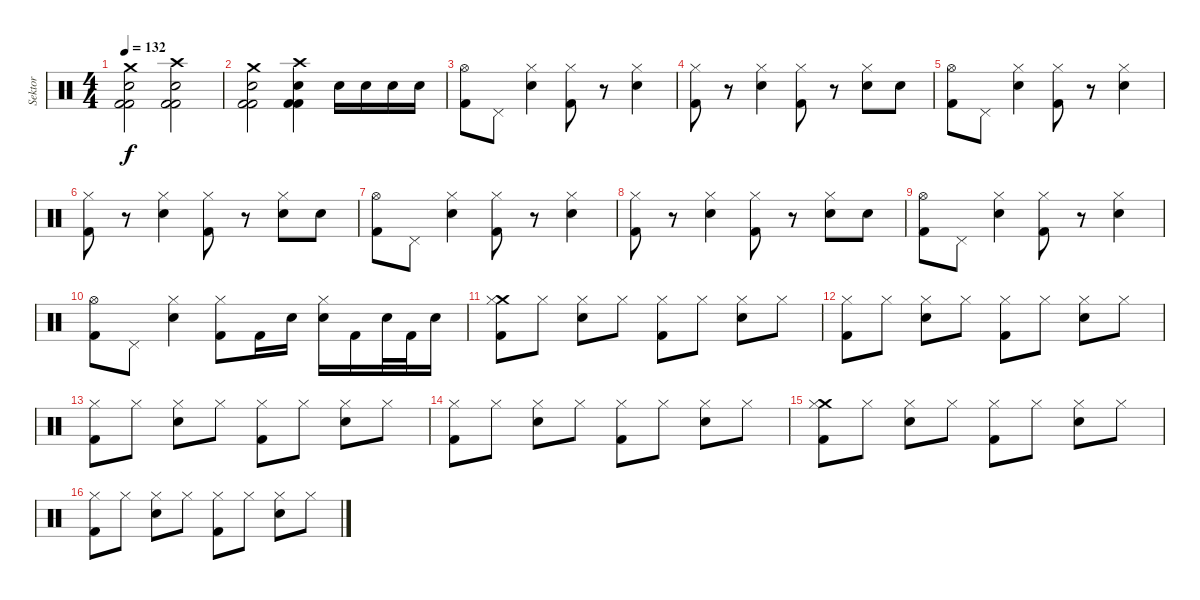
\track ("Sektor" "Sektor") {instrument percussion}
\staff {score}
\articulation defaults
\ts (4 4)
\tempo 132
\clef neutral
\ks c
("Crash medium (hit)" "Snare (hit) 2" "Kick (hit) 2" "Kick (hit) 2").2{dy f} ("Crash high (hit)" "Snare (hit) 2" "Kick (hit) 2" "Kick (hit) 2").2 |
("Crash medium (hit)" "Snare (hit) 2" "Kick (hit) 2" "Kick (hit) 2").2 ("Crash high (hit)" "Snare (hit) 2" "Kick (hit) 2" "Kick (hit) 2").4 "Snare (hit) 2".16 "Snare (hit) 2".16 "Snare (hit) 2".16 "Snare (hit) 2".16 |
("Hi-Hat (open)" "Kick (hit) 2").8 "Pedal Hi-Hat (hit)".8 ("Hi-Hat (closed)" "Snare (hit) 2").4 ("Hi-Hat (closed)" "Kick (hit) 2").8 r.8 ("Hi-Hat (closed)" "Snare (hit) 2").4 |
("Hi-Hat (closed)" "Kick (hit) 2").8 r.8 ("Hi-Hat (closed)" "Snare (hit) 2").4 ("Hi-Hat (closed)" "Kick (hit) 2").8 r.8 ("Hi-Hat (closed)" "Snare (hit) 2").8 "Snare (hit) 2".8 |
("Hi-Hat (open)" "Kick (hit) 2").8 "Pedal Hi-Hat (hit)".8 ("Hi-Hat (closed)" "Snare (hit) 2").4 ("Hi-Hat (closed)" "Kick (hit) 2").8 r.8 ("Hi-Hat (closed)" "Snare (hit) 2").4 |
("Hi-Hat (closed)" "Kick (hit) 2").8 r.8 ("Hi-Hat (closed)" "Snare (hit) 2").4 ("Hi-Hat (closed)" "Kick (hit) 2").8 r.8 ("Hi-Hat (closed)" "Snare (hit) 2").8 "Snare (hit) 2".8 |
("Hi-Hat (open)" "Kick (hit) 2").8 "Pedal Hi-Hat (hit)".8 ("Hi-Hat (closed)" "Snare (hit) 2").4 ("Hi-Hat (closed)" "Kick (hit) 2").8 r.8 ("Hi-Hat (closed)" "Snare (hit) 2").4 |
("Hi-Hat (closed)" "Kick (hit) 2").8 r.8 ("Hi-Hat (closed)" "Snare (hit) 2").4 ("Hi-Hat (closed)" "Kick (hit) 2").8 r.8 ("Hi-Hat (closed)" "Snare (hit) 2").8 "Snare (hit) 2".8 |
("Hi-Hat (open)" "Kick (hit) 2").8 "Pedal Hi-Hat (hit)".8 ("Hi-Hat (closed)" "Snare (hit) 2").4 ("Hi-Hat (closed)" "Kick (hit) 2").8 r.8 ("Hi-Hat (closed)" "Snare (hit) 2").4 |
("Hi-Hat (open)" "Kick (hit) 2").8 "Pedal Hi-Hat (hit)".8 ("Hi-Hat (closed)" "Snare (hit) 2").4 ("Hi-Hat (closed)" "Kick (hit) 2").8 "Kick (hit) 2".16 "Snare (hit) 2".16 ("Hi-Hat (closed)" "Snare (hit) 2").16 "Kick (hit) 2".16 "Snare (hit) 2".32 "Kick (hit) 2".32 "Snare (hit) 2".16 |
("Crash medium (hit)" "Hi-Hat (closed)" "Kick (hit) 2").8 "Hi-Hat (closed)".8 ("Hi-Hat (closed)" "Snare (hit) 2").8 "Hi-Hat (closed)".8 ("Hi-Hat (closed)" "Kick (hit) 2").8 "Hi-Hat (closed)".8 ("Hi-Hat (closed)" "Snare (hit) 2").8 "Hi-Hat (closed)".8 |
("Hi-Hat (closed)" "Kick (hit) 2").8 "Hi-Hat (closed)".8 ("Hi-Hat (closed)" "Snare (hit) 2").8 "Hi-Hat (closed)".8 ("Hi-Hat (closed)" "Kick (hit) 2").8 "Hi-Hat (closed)".8 ("Hi-Hat (closed)" "Snare (hit) 2").8 "Hi-Hat (closed)".8 |
("Hi-Hat (closed)" "Kick (hit) 2").8 "Hi-Hat (closed)".8 ("Hi-Hat (closed)" "Snare (hit) 2").8 "Hi-Hat (closed)".8 ("Hi-Hat (closed)" "Kick (hit) 2").8 "Hi-Hat (closed)".8 ("Hi-Hat (closed)" "Snare (hit) 2").8 "Hi-Hat (closed)".8 |
("Hi-Hat (closed)" "Kick (hit) 2").8 "Hi-Hat (closed)".8 ("Hi-Hat (closed)" "Snare (hit) 2").8 "Hi-Hat (closed)".8 ("Hi-Hat (closed)" "Kick (hit) 2").8 "Hi-Hat (closed)".8 ("Hi-Hat (closed)" "Snare (hit) 2").8 "Hi-Hat (closed)".8 |
("Crash medium (hit)" "Hi-Hat (closed)" "Kick (hit) 2").8 "Hi-Hat (closed)".8 ("Hi-Hat (closed)" "Snare (hit) 2").8 "Hi-Hat (closed)".8 ("Hi-Hat (closed)" "Kick (hit) 2").8 "Hi-Hat (closed)".8 ("Hi-Hat (closed)" "Snare (hit) 2").8 "Hi-Hat (closed)".8 |
("Hi-Hat (closed)" "Kick (hit) 2").8 "Hi-Hat (closed)".8 ("Hi-Hat (closed)" "Snare (hit) 2").8 "Hi-Hat (closed)".8 ("Hi-Hat (closed)" "Kick (hit) 2").8 "Hi-Hat (closed)".8 ("Hi-Hat (closed)" "Snare (hit) 2").8 "Hi-Hat (closed)".8
